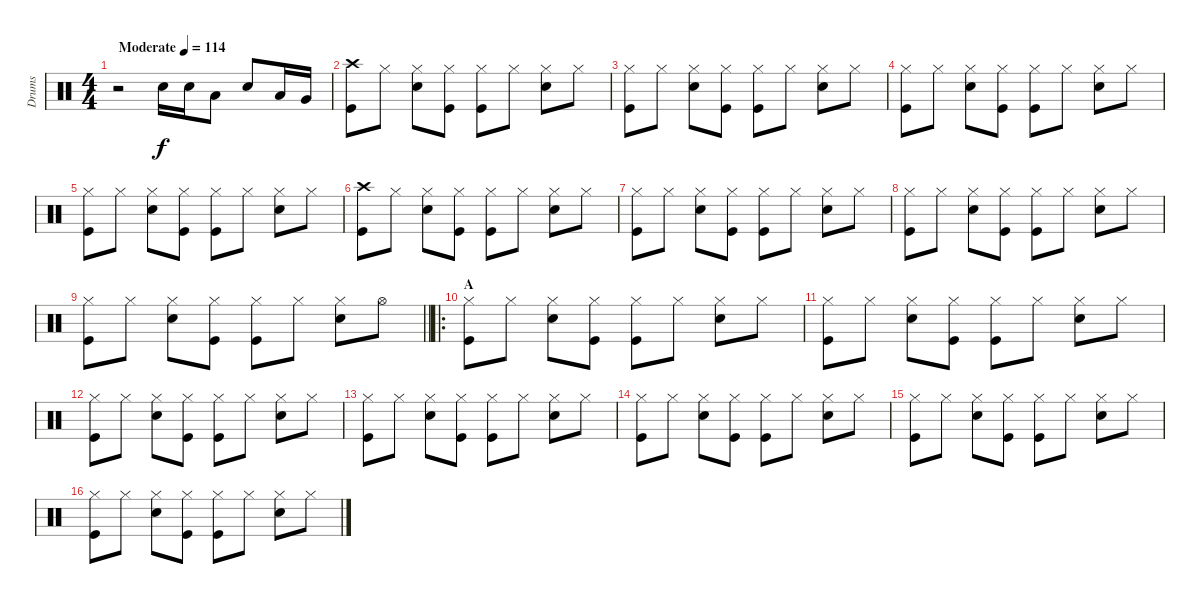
\track ("Drums" "Drums") {instrument percussion}
\staff {score}
\articulation defaults
\ts (4 4)
\tempo (114 "Moderate")
\clef neutral
\ks c
r.2{dy f} "Electric Snare (hit)".16 "Electric Snare (hit)".16 "Low Tom (hit)".8 "Electric Snare (hit)".8 "Low Tom (hit)".16 "Very Low Tom (hit)".16 |
("Crash high (hit)" "Kick (hit)").8 "Hi-Hat (closed)".8 ("Hi-Hat (closed)" "Electric Snare (hit)").8 ("Hi-Hat (closed)" "Kick (hit)").8 ("Hi-Hat (closed)" "Kick (hit)").8 "Hi-Hat (closed)".8 ("Hi-Hat (closed)" "Electric Snare (hit)").8 "Hi-Hat (closed)".8 |
("Hi-Hat (closed)" "Kick (hit)").8 "Hi-Hat (closed)".8 ("Hi-Hat (closed)" "Electric Snare (hit)").8 ("Hi-Hat (closed)" "Kick (hit)").8 ("Hi-Hat (closed)" "Kick (hit)").8 "Hi-Hat (closed)".8 ("Hi-Hat (closed)" "Electric Snare (hit)").8 "Hi-Hat (closed)".8 |
("Hi-Hat (closed)" "Kick (hit)").8 "Hi-Hat (closed)".8 ("Hi-Hat (closed)" "Electric Snare (hit)").8 ("Hi-Hat (closed)" "Kick (hit)").8 ("Hi-Hat (closed)" "Kick (hit)").8 "Hi-Hat (closed)".8 ("Hi-Hat (closed)" "Electric Snare (hit)").8 "Hi-Hat (closed)".8 |
("Hi-Hat (closed)" "Kick (hit)").8 "Hi-Hat (closed)".8 ("Hi-Hat (closed)" "Electric Snare (hit)").8 ("Hi-Hat (closed)" "Kick (hit)").8 ("Hi-Hat (closed)" "Kick (hit)").8 "Hi-Hat (closed)".8 ("Hi-Hat (closed)" "Electric Snare (hit)").8 "Hi-Hat (closed)".8 |
("Crash high (hit)" "Kick (hit)").8 "Hi-Hat (closed)".8 ("Hi-Hat (closed)" "Electric Snare (hit)").8 ("Hi-Hat (closed)" "Kick (hit)").8 ("Hi-Hat (closed)" "Kick (hit)").8 "Hi-Hat (closed)".8 ("Hi-Hat (closed)" "Electric Snare (hit)").8 "Hi-Hat (closed)".8 |
("Hi-Hat (closed)" "Kick (hit)").8 "Hi-Hat (closed)".8 ("Hi-Hat (closed)" "Electric Snare (hit)").8 ("Hi-Hat (closed)" "Kick (hit)").8 ("Hi-Hat (closed)" "Kick (hit)").8 "Hi-Hat (closed)".8 ("Hi-Hat (closed)" "Electric Snare (hit)").8 "Hi-Hat (closed)".8 |
("Hi-Hat (closed)" "Kick (hit)").8 "Hi-Hat (closed)".8 ("Hi-Hat (closed)" "Electric Snare (hit)").8 ("Hi-Hat (closed)" "Kick (hit)").8 ("Hi-Hat (closed)" "Kick (hit)").8 "Hi-Hat (closed)".8 ("Hi-Hat (closed)" "Electric Snare (hit)").8 "Hi-Hat (closed)".8 |
\barLineRight lightlight
("Hi-Hat (closed)" "Kick (hit)").8 "Hi-Hat (closed)".8 ("Hi-Hat (closed)" "Electric Snare (hit)").8 ("Hi-Hat (closed)" "Kick (hit)").8 ("Hi-Hat (closed)" "Kick (hit)").8 "Hi-Hat (closed)".8 ("Hi-Hat (closed)" "Electric Snare (hit)").8 "Hi-Hat (open)".8 |
\ro
\section ("" "A")
("Hi-Hat (closed)" "Kick (hit)").8 "Hi-Hat (closed)".8 ("Hi-Hat (closed)" "Electric Snare (hit)").8 ("Hi-Hat (closed)" "Kick (hit)").8 ("Hi-Hat (closed)" "Kick (hit)").8 "Hi-Hat (closed)".8 ("Hi-Hat (closed)" "Electric Snare (hit)").8 "Hi-Hat (closed)".8 |
("Hi-Hat (closed)" "Kick (hit)").8 "Hi-Hat (closed)".8 ("Hi-Hat (closed)" "Electric Snare (hit)").8 ("Hi-Hat (closed)" "Kick (hit)").8 ("Hi-Hat (closed)" "Kick (hit)").8 "Hi-Hat (closed)".8 ("Hi-Hat (closed)" "Electric Snare (hit)").8 "Hi-Hat (closed)".8 |
("Hi-Hat (closed)" "Kick (hit)").8 "Hi-Hat (closed)".8 ("Hi-Hat (closed)" "Electric Snare (hit)").8 ("Hi-Hat (closed)" "Kick (hit)").8 ("Hi-Hat (closed)" "Kick (hit)").8 "Hi-Hat (closed)".8 ("Hi-Hat (closed)" "Electric Snare (hit)").8 "Hi-Hat (closed)".8 |
("Hi-Hat (closed)" "Kick (hit)").8 "Hi-Hat (closed)".8 ("Hi-Hat (closed)" "Electric Snare (hit)").8 ("Hi-Hat (closed)" "Kick (hit)").8 ("Hi-Hat (closed)" "Kick (hit)").8 "Hi-Hat (closed)".8 ("Hi-Hat (closed)" "Electric Snare (hit)").8 "Hi-Hat (closed)".8 |
("Hi-Hat (closed)" "Kick (hit)").8 "Hi-Hat (closed)".8 ("Hi-Hat (closed)" "Electric Snare (hit)").8 ("Hi-Hat (closed)" "Kick (hit)").8 ("Hi-Hat (closed)" "Kick (hit)").8 "Hi-Hat (closed)".8 ("Hi-Hat (closed)" "Electric Snare (hit)").8 "Hi-Hat (closed)".8 |
("Hi-Hat (closed)" "Kick (hit)").8 "Hi-Hat (closed)".8 ("Hi-Hat (closed)" "Electric Snare (hit)").8 ("Hi-Hat (closed)" "Kick (hit)").8 ("Hi-Hat (closed)" "Kick (hit)").8 "Hi-Hat (closed)".8 ("Hi-Hat (closed)" "Electric Snare (hit)").8 "Hi-Hat (closed)".8 |
("Hi-Hat (closed)" "Kick (hit)").8 "Hi-Hat (closed)".8 ("Hi-Hat (closed)" "Electric Snare (hit)").8 ("Hi-Hat (closed)" "Kick (hit)").8 ("Hi-Hat (closed)" "Kick (hit)").8 "Hi-Hat (closed)".8 ("Hi-Hat (closed)" "Electric Snare (hit)").8 "Hi-Hat (closed)".8
